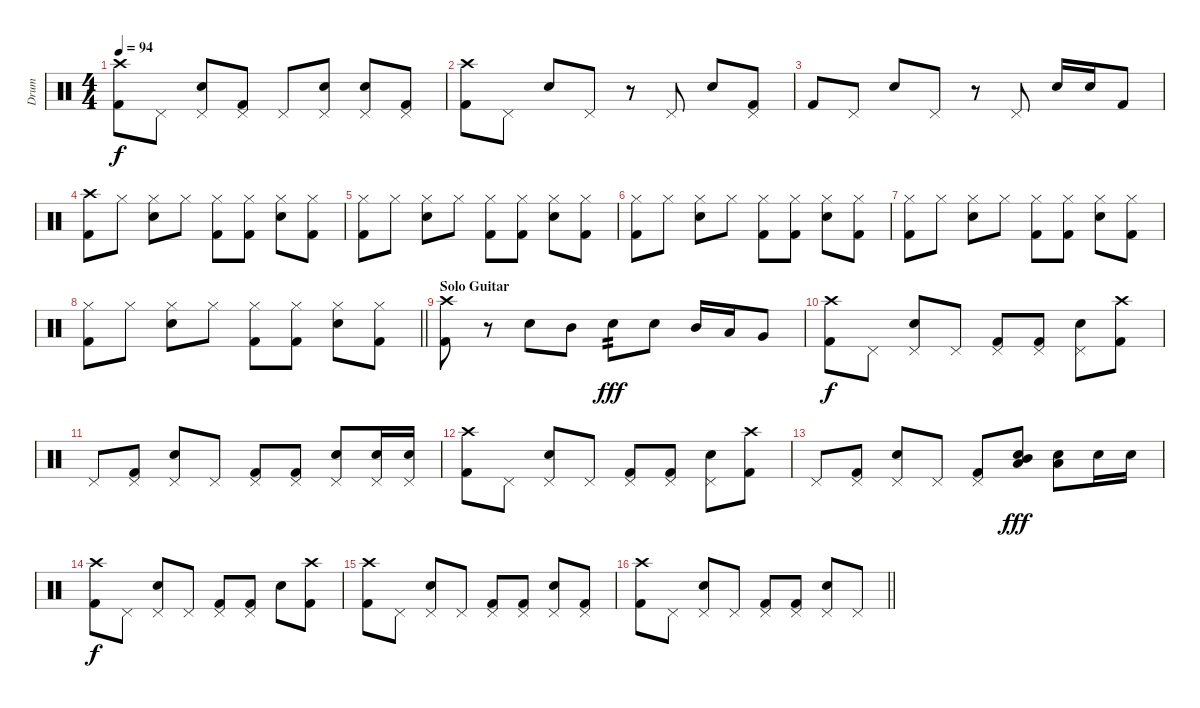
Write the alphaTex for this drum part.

\track ("Drum" "Drum") {instrument percussion}
\staff {score}
\articulation defaults
\ts (4 4)
\tempo 94
\clef neutral
\ks c
("Crash high (hit)" "Kick (hit) 2").8{dy f} "Pedal Hi-Hat (hit)".8 ("Pedal Hi-Hat (hit)" "Electric Snare (hit)").8 ("Pedal Hi-Hat (hit)" "Kick (hit) 2").8 "Pedal Hi-Hat (hit)".8 ("Pedal Hi-Hat (hit)" "Electric Snare (hit)").8 ("Pedal Hi-Hat (hit)" "Electric Snare (hit)").8 ("Pedal Hi-Hat (hit)" "Kick (hit) 2").8 |
("Crash high (hit)" "Kick (hit) 2").8 "Pedal Hi-Hat (hit)".8 "Electric Snare (hit)".8 "Pedal Hi-Hat (hit)".8 r.8 "Pedal Hi-Hat (hit)".8 "Electric Snare (hit)".8 ("Pedal Hi-Hat (hit)" "Kick (hit) 2").8 |
"Kick (hit) 2".8 "Pedal Hi-Hat (hit)".8 "Electric Snare (hit)".8 "Pedal Hi-Hat (hit)".8 r.8 "Pedal Hi-Hat (hit)".8 "Electric Snare (hit)".16 "Electric Snare (hit)".16 "Kick (hit) 2".8 |
("Crash high (hit)" "Kick (hit) 2").8 "Hi-Hat (closed)".8 ("Hi-Hat (closed)" "Electric Snare (hit)").8 "Hi-Hat (closed)".8 ("Hi-Hat (closed)" "Kick (hit) 2").8 ("Hi-Hat (closed)" "Kick (hit) 2").8 ("Hi-Hat (closed)" "Electric Snare (hit)").8 ("Hi-Hat (closed)" "Kick (hit) 2").8 |
("Hi-Hat (closed)" "Kick (hit) 2").8 "Hi-Hat (closed)".8 ("Hi-Hat (closed)" "Electric Snare (hit)").8 "Hi-Hat (closed)".8 ("Hi-Hat (closed)" "Kick (hit) 2").8 ("Hi-Hat (closed)" "Kick (hit) 2").8 ("Hi-Hat (closed)" "Electric Snare (hit)").8 ("Hi-Hat (closed)" "Kick (hit) 2").8 |
("Hi-Hat (closed)" "Kick (hit) 2").8 "Hi-Hat (closed)".8 ("Hi-Hat (closed)" "Electric Snare (hit)").8 "Hi-Hat (closed)".8 ("Hi-Hat (closed)" "Kick (hit) 2").8 ("Hi-Hat (closed)" "Kick (hit) 2").8 ("Hi-Hat (closed)" "Electric Snare (hit)").8 ("Hi-Hat (closed)" "Kick (hit) 2").8 |
("Hi-Hat (closed)" "Kick (hit) 2").8 "Hi-Hat (closed)".8 ("Hi-Hat (closed)" "Electric Snare (hit)").8 "Hi-Hat (closed)".8 ("Hi-Hat (closed)" "Kick (hit) 2").8 ("Hi-Hat (closed)" "Kick (hit) 2").8 ("Hi-Hat (closed)" "Electric Snare (hit)").8 ("Hi-Hat (closed)" "Kick (hit) 2").8 |
\barLineRight lightlight
("Hi-Hat (closed)" "Kick (hit) 2").8 "Hi-Hat (closed)".8 ("Hi-Hat (closed)" "Electric Snare (hit)").8 "Hi-Hat (closed)".8 ("Hi-Hat (closed)" "Kick (hit) 2").8 ("Hi-Hat (closed)" "Kick (hit) 2").8 ("Hi-Hat (closed)" "Electric Snare (hit)").8 ("Hi-Hat (closed)" "Kick (hit) 2").8 |
\section ("" "Solo Guitar")
("Crash high (hit)" "Kick (hit) 2").8 r.8 "Electric Snare (hit)".8 "Mid Tom (hit)".8 "Electric Snare (hit)".8{tp 2 dy fff} "Electric Snare (hit)".8 "Mid Tom (hit)".16 "Low Tom (hit)".16 "Very Low Tom (hit)".8 |
("Crash high (hit)" "Kick (hit) 2").8{dy f} "Pedal Hi-Hat (hit)".8 ("Pedal Hi-Hat (hit)" "Electric Snare (hit)").8 "Pedal Hi-Hat (hit)".8 ("Pedal Hi-Hat (hit)" "Kick (hit) 2").8 ("Pedal Hi-Hat (hit)" "Kick (hit) 2").8 ("Pedal Hi-Hat (hit)" "Electric Snare (hit)").8 ("Crash high (hit)" "Kick (hit) 2").8 |
"Pedal Hi-Hat (hit)".8 ("Pedal Hi-Hat (hit)" "Kick (hit) 2").8 ("Pedal Hi-Hat (hit)" "Electric Snare (hit)").8 "Pedal Hi-Hat (hit)".8 ("Pedal Hi-Hat (hit)" "Kick (hit) 2").8 ("Pedal Hi-Hat (hit)" "Kick (hit) 2").8 ("Pedal Hi-Hat (hit)" "Electric Snare (hit)").8 ("Pedal Hi-Hat (hit)" "Electric Snare (hit)").16 ("Pedal Hi-Hat (hit)" "Electric Snare (hit)").16 |
("Crash high (hit)" "Kick (hit) 2").8 "Pedal Hi-Hat (hit)".8 ("Pedal Hi-Hat (hit)" "Electric Snare (hit)").8 "Pedal Hi-Hat (hit)".8 ("Pedal Hi-Hat (hit)" "Kick (hit) 2").8 ("Pedal Hi-Hat (hit)" "Kick (hit) 2").8 ("Pedal Hi-Hat (hit)" "Electric Snare (hit)").8 ("Crash high (hit)" "Kick (hit) 2").8 |
"Pedal Hi-Hat (hit)".8 ("Pedal Hi-Hat (hit)" "Kick (hit) 2").8 ("Pedal Hi-Hat (hit)" "Electric Snare (hit)").8 "Pedal Hi-Hat (hit)".8 ("Pedal Hi-Hat (hit)" "Kick (hit) 2").8 ("Electric Snare (hit)" "Mid Tom (hit)" "Low Tom (hit)").8{dy fff} ("Electric Snare (hit)" "Low Tom (hit)").8 "Electric Snare (hit)".16 "Electric Snare (hit)".16 |
("Crash high (hit)" "Kick (hit) 2").8{dy f} "Pedal Hi-Hat (hit)".8 ("Pedal Hi-Hat (hit)" "Electric Snare (hit)").8 "Pedal Hi-Hat (hit)".8 ("Pedal Hi-Hat (hit)" "Kick (hit) 2").8 ("Pedal Hi-Hat (hit)" "Kick (hit) 2").8 "Electric Snare (hit)".8 ("Crash high (hit)" "Kick (hit) 2").8 |
("Crash high (hit)" "Kick (hit) 2").8 "Pedal Hi-Hat (hit)".8 ("Pedal Hi-Hat (hit)" "Electric Snare (hit)").8 "Pedal Hi-Hat (hit)".8 ("Pedal Hi-Hat (hit)" "Kick (hit) 2").8 ("Pedal Hi-Hat (hit)" "Kick (hit) 2").8 ("Pedal Hi-Hat (hit)" "Electric Snare (hit)").8 ("Pedal Hi-Hat (hit)" "Kick (hit) 2").8 |
\barLineRight lightlight
("Crash high (hit)" "Kick (hit) 2").8 "Pedal Hi-Hat (hit)".8 ("Pedal Hi-Hat (hit)" "Electric Snare (hit)").8 "Pedal Hi-Hat (hit)".8 ("Pedal Hi-Hat (hit)" "Kick (hit) 2").8 ("Pedal Hi-Hat (hit)" "Kick (hit) 2").8 ("Pedal Hi-Hat (hit)" "Electric Snare (hit)").8 "Pedal Hi-Hat (hit)".8
